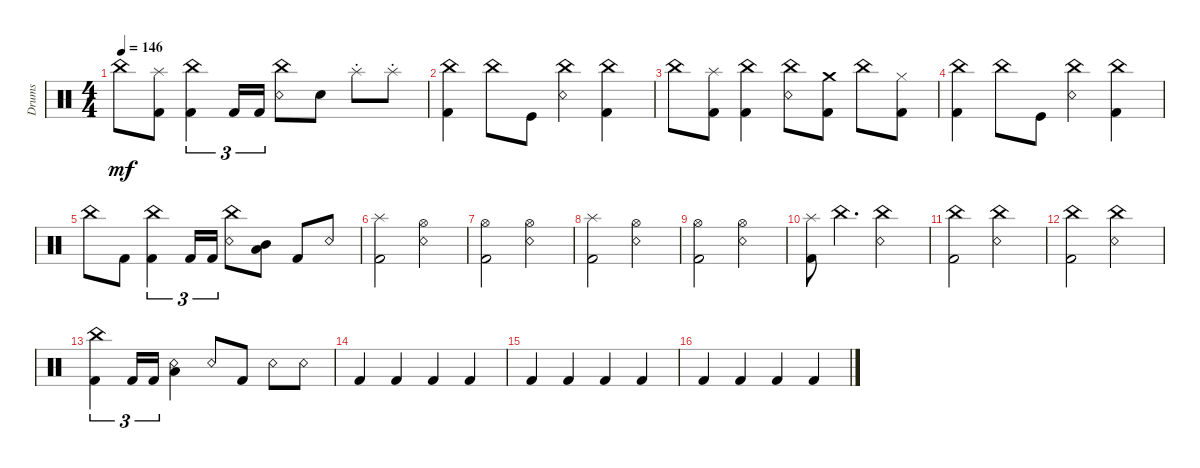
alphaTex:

\track ("Drums" "Drums") {instrument percussion}
\staff {score}
\articulation defaults
\ts (4 4)
\tempo 146
\clef neutral
\ks c "China (hit)".8{dy mf}
("Splash (hit)" "Kick (hit) 2").8 ("China (hit)" "Kick (hit) 2").4{tu (3 2)} "Kick (hit) 2".16{tu (3 2)} "Kick (hit) 2".16{tu (3 2)} ("China (hit)" "Snare (rim shot)").8 "Snare (hit) 2".8 "Splash (choke)".8 "Splash (choke)".8 |
("China (hit)" "Kick (hit) 2").4 "China (hit)".8 "Kick (hit)".8 ("China (hit)" "Snare (rim shot)").4 ("China (hit)" "Kick (hit) 2").4 |
"China (hit)".8 ("Splash (hit)" "Kick (hit) 2").8 ("China (hit)" "Kick (hit) 2").4 ("China (hit)" "Snare (rim shot)").8 ("Crash medium (hit)" "Kick (hit) 2").8 "China (hit)".8 ("Hi-Hat (closed)" "Kick (hit) 2").8 |
("China (hit)" "Kick (hit) 2").4 "China (hit)".8 "Kick (hit)".8 ("China (hit)" "Snare (rim shot)").4 ("China (hit)" "Kick (hit) 2").4 |
"China (hit)".8 "Kick (hit) 2".8 ("China (hit)" "Kick (hit) 2").4{tu (3 2)} "Kick (hit) 2".16{tu (3 2)} "Kick (hit) 2".16{tu (3 2)} ("China (hit)" "Snare (rim shot)").8 ("Mid Tom (hit)" "Low Tom (hit)").8 "Kick (hit) 2".8 "Snare (rim shot)".8 |
("Splash (hit)" "Kick (hit) 2").2 ("Hi-Hat (open)" "Snare (rim shot)").2 |
("Hi-Hat (open)" "Kick (hit) 2").2 ("Hi-Hat (open)" "Snare (rim shot)").2 |
("Splash (hit)" "Kick (hit) 2").2 ("Hi-Hat (open)" "Snare (rim shot)").2 |
("Hi-Hat (open)" "Kick (hit) 2").2 ("Hi-Hat (open)" "Snare (rim shot)").2 |
("Splash (hit)" "Kick (hit) 2").8 "China (hit)".4{d} ("China (hit)" "Snare (rim shot)").2 |
("China (hit)" "Kick (hit) 2").2 ("China (hit)" "Snare (rim shot)").2 |
("China (hit)" "Kick (hit) 2").2 ("China (hit)" "Snare (rim shot)").2 |
("China (hit)" "Kick (hit) 2").4{tu (3 2)} "Kick (hit) 2".16{tu (3 2)} "Kick (hit) 2".16{tu (3 2)} ("Low Tom (hit)" "Snare (rim shot)").4 "Snare (rim shot)".8 "Kick (hit) 2".8 "Snare (rim shot)".8 "Snare (rim shot)".8 |
"Kick (hit) 2".4 "Kick (hit) 2".4 "Kick (hit) 2".4 "Kick (hit) 2".4 |
"Kick (hit) 2".4 "Kick (hit) 2".4 "Kick (hit) 2".4 "Kick (hit) 2".4 |
"Kick (hit) 2".4 "Kick (hit) 2".4 "Kick (hit) 2".4 "Kick (hit) 2".4
